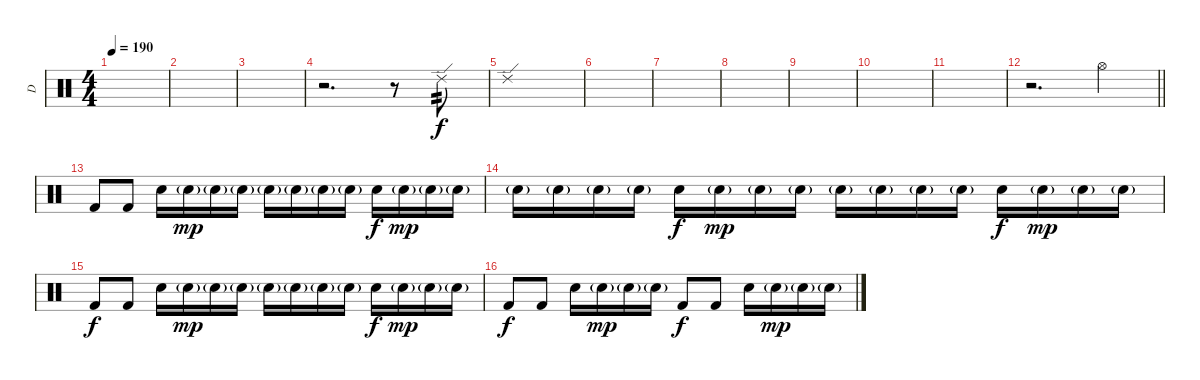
\track ("D" "D") {instrument percussion}
\staff {score}
\articulation defaults
\ts (4 4)
\tempo 190
\clef neutral
\ks c
|
|
|
r.2{d} r.8 "Ride (edge) 2".8{tp 2} |
"Ride (edge) 2".1 |
|
|
|
|
|
|
\barLineRight lightlight
r.2{d} "Hi-Hat (open)".4 |
\section ("" "")
"Kick (hit) 2".8 "Kick (hit) 2".8 "Electric Snare (hit)".16 "Electric Snare (hit)"{g}.16{dy mp} "Electric Snare (hit)"{g}.16 "Electric Snare (hit)"{g}.16 "Electric Snare (hit)"{g}.16 "Electric Snare (hit)"{g}.16 "Electric Snare (hit)"{g}.16 "Electric Snare (hit)"{g}.16 "Electric Snare (hit)".16{dy f} "Electric Snare (hit)"{g}.16{dy mp} "Electric Snare (hit)"{g}.16 "Electric Snare (hit)"{g}.16 |
"Electric Snare (hit)"{g}.16 "Electric Snare (hit)"{g}.16 "Electric Snare (hit)"{g}.16 "Electric Snare (hit)"{g}.16 "Electric Snare (hit)".16{dy f} "Electric Snare (hit)"{g}.16{dy mp} "Electric Snare (hit)"{g}.16 "Electric Snare (hit)"{g}.16 "Electric Snare (hit)"{g}.16 "Electric Snare (hit)"{g}.16 "Electric Snare (hit)"{g}.16 "Electric Snare (hit)"{g}.16 "Electric Snare (hit)".16{dy f} "Electric Snare (hit)"{g}.16{dy mp} "Electric Snare (hit)"{g}.16 "Electric Snare (hit)"{g}.16 |
"Kick (hit) 2".8{dy f} "Kick (hit) 2".8 "Electric Snare (hit)".16 "Electric Snare (hit)"{g}.16{dy mp} "Electric Snare (hit)"{g}.16 "Electric Snare (hit)"{g}.16 "Electric Snare (hit)"{g}.16 "Electric Snare (hit)"{g}.16 "Electric Snare (hit)"{g}.16 "Electric Snare (hit)"{g}.16 "Electric Snare (hit)".16{dy f} "Electric Snare (hit)"{g}.16{dy mp} "Electric Snare (hit)"{g}.16 "Electric Snare (hit)"{g}.16 |
"Kick (hit) 2".8{dy f} "Kick (hit) 2".8 "Electric Snare (hit)".16 "Electric Snare (hit)"{g}.16{dy mp} "Electric Snare (hit)"{g}.16 "Electric Snare (hit)"{g}.16 "Kick (hit) 2".8{dy f} "Kick (hit) 2".8 "Electric Snare (hit)".16 "Electric Snare (hit)"{g}.16{dy mp} "Electric Snare (hit)"{g}.16 "Electric Snare (hit)"{g}.16
